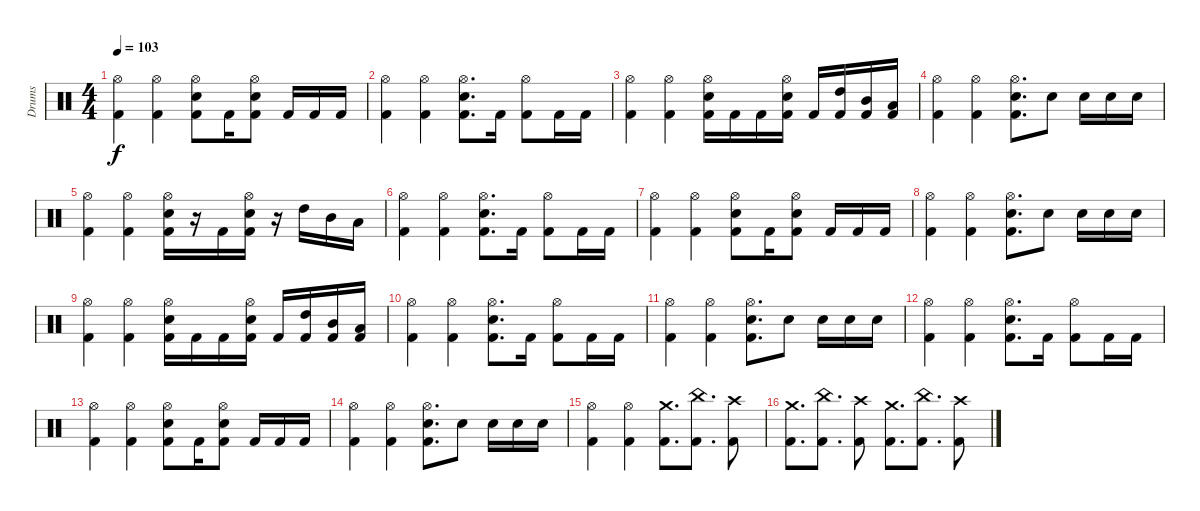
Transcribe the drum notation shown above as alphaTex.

\track ("Drums" "Drums") {instrument percussion}
\staff {score}
\articulation defaults
\ts (4 4)
\tempo 103
\clef neutral
\ks c
("Hi-Hat (open)" "Kick (hit) 2").4{dy f} ("Hi-Hat (open)" "Kick (hit) 2").4 ("Hi-Hat (open)" "Electric Snare (hit)" "Kick (hit) 2").8 "Kick (hit) 2".16 ("Hi-Hat (open)" "Electric Snare (hit)" "Kick (hit) 2").8 "Kick (hit) 2".16 "Kick (hit) 2".16 "Kick (hit) 2".16 |
("Hi-Hat (open)" "Kick (hit) 2").4 ("Hi-Hat (open)" "Kick (hit) 2").4 ("Hi-Hat (open)" "Electric Snare (hit)" "Kick (hit) 2").8{d} "Kick (hit) 2".16 ("Hi-Hat (open)" "Kick (hit) 2").8 "Kick (hit) 2".16 "Kick (hit) 2".16 |
("Hi-Hat (open)" "Kick (hit) 2").4 ("Hi-Hat (open)" "Kick (hit) 2").4 ("Hi-Hat (open)" "Electric Snare (hit)" "Kick (hit) 2").16 "Kick (hit) 2".16 "Kick (hit) 2".16 ("Hi-Hat (open)" "Electric Snare (hit)" "Kick (hit) 2").16 "Kick (hit) 2".16 ("High Tom (hit)" "Kick (hit) 2").16 ("Mid Tom (hit)" "Kick (hit) 2").16 ("Low Tom (hit)" "Kick (hit) 2").16 |
("Hi-Hat (open)" "Kick (hit) 2").4 ("Hi-Hat (open)" "Kick (hit) 2").4 ("Hi-Hat (open)" "Electric Snare (hit)" "Kick (hit) 2").8{d} "Electric Snare (hit)".8 "Electric Snare (hit)".16 "Electric Snare (hit)".16 "Electric Snare (hit)".16 |
("Hi-Hat (open)" "Kick (hit) 2").4 ("Hi-Hat (open)" "Kick (hit) 2").4 ("Hi-Hat (open)" "Electric Snare (hit)" "Kick (hit) 2").16 r.16 "Kick (hit) 2".16 ("Hi-Hat (open)" "Electric Snare (hit)" "Kick (hit) 2").16 r.16 "High Tom (hit)".16 "Mid Tom (hit)".16 "Low Tom (hit)".16 |
("Hi-Hat (open)" "Kick (hit) 2").4 ("Hi-Hat (open)" "Kick (hit) 2").4 ("Hi-Hat (open)" "Electric Snare (hit)" "Kick (hit) 2").8{d} "Kick (hit) 2".16 ("Hi-Hat (open)" "Kick (hit) 2").8 "Kick (hit) 2".16 "Kick (hit) 2".16 |
("Hi-Hat (open)" "Kick (hit) 2").4 ("Hi-Hat (open)" "Kick (hit) 2").4 ("Hi-Hat (open)" "Electric Snare (hit)" "Kick (hit) 2").8 "Kick (hit) 2".16 ("Hi-Hat (open)" "Electric Snare (hit)" "Kick (hit) 2").8 "Kick (hit) 2".16 "Kick (hit) 2".16 "Kick (hit) 2".16 |
("Hi-Hat (open)" "Kick (hit) 2").4 ("Hi-Hat (open)" "Kick (hit) 2").4 ("Hi-Hat (open)" "Electric Snare (hit)" "Kick (hit) 2").8{d} "Electric Snare (hit)".8 "Electric Snare (hit)".16 "Electric Snare (hit)".16 "Electric Snare (hit)".16 |
("Hi-Hat (open)" "Kick (hit) 2").4 ("Hi-Hat (open)" "Kick (hit) 2").4 ("Hi-Hat (open)" "Electric Snare (hit)" "Kick (hit) 2").16 "Kick (hit) 2".16 "Kick (hit) 2".16 ("Hi-Hat (open)" "Electric Snare (hit)" "Kick (hit) 2").16 "Kick (hit) 2".16 ("High Tom (hit)" "Kick (hit) 2").16 ("Mid Tom (hit)" "Kick (hit) 2").16 ("Low Tom (hit)" "Kick (hit) 2").16 |
("Hi-Hat (open)" "Kick (hit) 2").4 ("Hi-Hat (open)" "Kick (hit) 2").4 ("Hi-Hat (open)" "Electric Snare (hit)" "Kick (hit) 2").8{d} "Kick (hit) 2".16 ("Hi-Hat (open)" "Kick (hit) 2").8 "Kick (hit) 2".16 "Kick (hit) 2".16 |
("Hi-Hat (open)" "Kick (hit) 2").4 ("Hi-Hat (open)" "Kick (hit) 2").4 ("Hi-Hat (open)" "Electric Snare (hit)" "Kick (hit) 2").8{d} "Electric Snare (hit)".8 "Electric Snare (hit)".16 "Electric Snare (hit)".16 "Electric Snare (hit)".16 |
("Hi-Hat (open)" "Kick (hit) 2").4 ("Hi-Hat (open)" "Kick (hit) 2").4 ("Hi-Hat (open)" "Electric Snare (hit)" "Kick (hit) 2").8{d} "Kick (hit) 2".16 ("Hi-Hat (open)" "Kick (hit) 2").8 "Kick (hit) 2".16 "Kick (hit) 2".16 |
("Hi-Hat (open)" "Kick (hit) 2").4 ("Hi-Hat (open)" "Kick (hit) 2").4 ("Hi-Hat (open)" "Electric Snare (hit)" "Kick (hit) 2").8 "Kick (hit) 2".16 ("Hi-Hat (open)" "Electric Snare (hit)" "Kick (hit) 2").8 "Kick (hit) 2".16 "Kick (hit) 2".16 "Kick (hit) 2".16 |
("Hi-Hat (open)" "Kick (hit) 2").4 ("Hi-Hat (open)" "Kick (hit) 2").4 ("Hi-Hat (open)" "Electric Snare (hit)" "Kick (hit) 2").8{d} "Electric Snare (hit)".8 "Electric Snare (hit)".16 "Electric Snare (hit)".16 "Electric Snare (hit)".16 |
("Hi-Hat (open)" "Kick (hit) 2").4 ("Hi-Hat (open)" "Kick (hit) 2").4 ("Crash medium (hit)" "Kick (hit) 2").8{d} ("China (hit)" "Kick (hit) 2").8{d} ("Crash high (hit)" "Kick (hit) 2").8 |
("Crash medium (hit)" "Kick (hit) 2").8{d} ("China (hit)" "Kick (hit) 2").8{d} ("Crash high (hit)" "Kick (hit) 2").8 ("Crash medium (hit)" "Kick (hit) 2").8{d} ("China (hit)" "Kick (hit) 2").8{d} ("Crash high (hit)" "Kick (hit) 2").8
